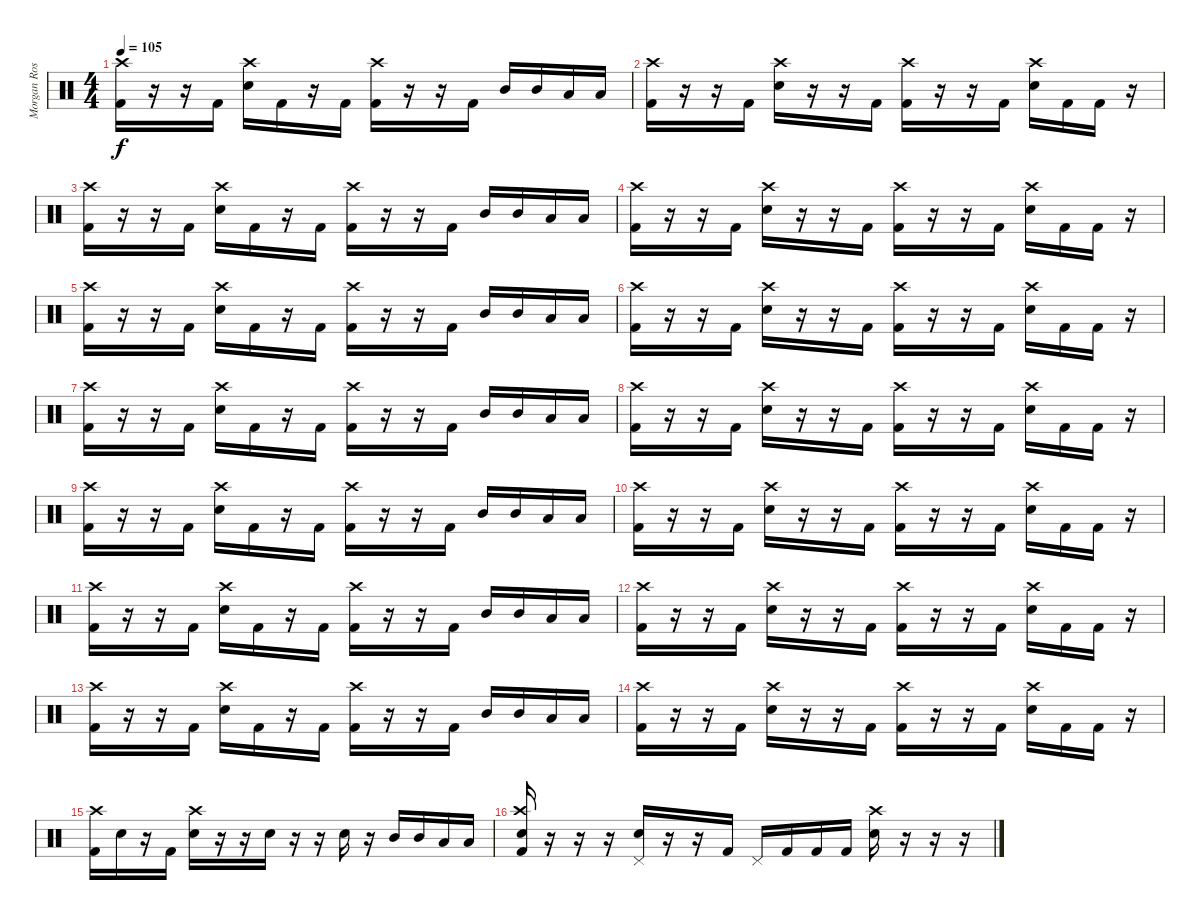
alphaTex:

\track ("Morgan Rose - Drums" "Morgan Ros") {instrument percussion}
\staff {score}
\articulation defaults
\ts (4 4)
\tempo 105
\clef neutral
\ks c
("Kick (hit) 2" "Crash high (hit)").16{dy f} r.16 r.16 "Kick (hit) 2".16 ("Snare (hit) 2" "Crash high (hit)").16 "Kick (hit) 2".16 r.16 "Kick (hit) 2".16 ("Kick (hit) 2" "Crash high (hit)").16 r.16 r.16 "Kick (hit) 2".16 "Mid Tom (hit)".16 "Mid Tom (hit)".16 "Low Tom (hit)".16 "Low Tom (hit)".16 |
("Kick (hit) 2" "Crash high (hit)").16 r.16 r.16 "Kick (hit) 2".16 ("Snare (hit) 2" "Crash high (hit)").16 r.16 r.16 "Kick (hit) 2".16 ("Kick (hit) 2" "Crash high (hit)").16 r.16 r.16 "Kick (hit) 2".16 ("Snare (hit) 2" "Crash high (hit)").16 "Kick (hit) 2".16 "Kick (hit) 2".16 r.16 |
("Kick (hit) 2" "Crash high (hit)").16 r.16 r.16 "Kick (hit) 2".16 ("Snare (hit) 2" "Crash high (hit)").16 "Kick (hit) 2".16 r.16 "Kick (hit) 2".16 ("Kick (hit) 2" "Crash high (hit)").16 r.16 r.16 "Kick (hit) 2".16 "Mid Tom (hit)".16 "Mid Tom (hit)".16 "Low Tom (hit)".16 "Low Tom (hit)".16 |
("Kick (hit) 2" "Crash high (hit)").16 r.16 r.16 "Kick (hit) 2".16 ("Snare (hit) 2" "Crash high (hit)").16 r.16 r.16 "Kick (hit) 2".16 ("Kick (hit) 2" "Crash high (hit)").16 r.16 r.16 "Kick (hit) 2".16 ("Snare (hit) 2" "Crash high (hit)").16 "Kick (hit) 2".16 "Kick (hit) 2".16 r.16 |
("Kick (hit) 2" "Crash high (hit)").16 r.16 r.16 "Kick (hit) 2".16 ("Snare (hit) 2" "Crash high (hit)").16 "Kick (hit) 2".16 r.16 "Kick (hit) 2".16 ("Kick (hit) 2" "Crash high (hit)").16 r.16 r.16 "Kick (hit) 2".16 "Mid Tom (hit)".16 "Mid Tom (hit)".16 "Low Tom (hit)".16 "Low Tom (hit)".16 |
("Kick (hit) 2" "Crash high (hit)").16 r.16 r.16 "Kick (hit) 2".16 ("Snare (hit) 2" "Crash high (hit)").16 r.16 r.16 "Kick (hit) 2".16 ("Kick (hit) 2" "Crash high (hit)").16 r.16 r.16 "Kick (hit) 2".16 ("Snare (hit) 2" "Crash high (hit)").16 "Kick (hit) 2".16 "Kick (hit) 2".16 r.16 |
("Kick (hit) 2" "Crash high (hit)").16 r.16 r.16 "Kick (hit) 2".16 ("Snare (hit) 2" "Crash high (hit)").16 "Kick (hit) 2".16 r.16 "Kick (hit) 2".16 ("Kick (hit) 2" "Crash high (hit)").16 r.16 r.16 "Kick (hit) 2".16 "Mid Tom (hit)".16 "Mid Tom (hit)".16 "Low Tom (hit)".16 "Low Tom (hit)".16 |
("Kick (hit) 2" "Crash high (hit)").16 r.16 r.16 "Kick (hit) 2".16 ("Snare (hit) 2" "Crash high (hit)").16 r.16 r.16 "Kick (hit) 2".16 ("Kick (hit) 2" "Crash high (hit)").16 r.16 r.16 "Kick (hit) 2".16 ("Snare (hit) 2" "Crash high (hit)").16 "Kick (hit) 2".16 "Kick (hit) 2".16 r.16 |
("Kick (hit) 2" "Crash high (hit)").16 r.16 r.16 "Kick (hit) 2".16 ("Snare (hit) 2" "Crash high (hit)").16 "Kick (hit) 2".16 r.16 "Kick (hit) 2".16 ("Kick (hit) 2" "Crash high (hit)").16 r.16 r.16 "Kick (hit) 2".16 "Mid Tom (hit)".16 "Mid Tom (hit)".16 "Low Tom (hit)".16 "Low Tom (hit)".16 |
("Kick (hit) 2" "Crash high (hit)").16 r.16 r.16 "Kick (hit) 2".16 ("Snare (hit) 2" "Crash high (hit)").16 r.16 r.16 "Kick (hit) 2".16 ("Kick (hit) 2" "Crash high (hit)").16 r.16 r.16 "Kick (hit) 2".16 ("Snare (hit) 2" "Crash high (hit)").16 "Kick (hit) 2".16 "Kick (hit) 2".16 r.16 |
("Kick (hit) 2" "Crash high (hit)").16 r.16 r.16 "Kick (hit) 2".16 ("Snare (hit) 2" "Crash high (hit)").16 "Kick (hit) 2".16 r.16 "Kick (hit) 2".16 ("Kick (hit) 2" "Crash high (hit)").16 r.16 r.16 "Kick (hit) 2".16 "Mid Tom (hit)".16 "Mid Tom (hit)".16 "Low Tom (hit)".16 "Low Tom (hit)".16 |
("Kick (hit) 2" "Crash high (hit)").16 r.16 r.16 "Kick (hit) 2".16 ("Snare (hit) 2" "Crash high (hit)").16 r.16 r.16 "Kick (hit) 2".16 ("Kick (hit) 2" "Crash high (hit)").16 r.16 r.16 "Kick (hit) 2".16 ("Snare (hit) 2" "Crash high (hit)").16 "Kick (hit) 2".16 "Kick (hit) 2".16 r.16 |
("Kick (hit) 2" "Crash high (hit)").16 r.16 r.16 "Kick (hit) 2".16 ("Snare (hit) 2" "Crash high (hit)").16 "Kick (hit) 2".16 r.16 "Kick (hit) 2".16 ("Kick (hit) 2" "Crash high (hit)").16 r.16 r.16 "Kick (hit) 2".16 "Mid Tom (hit)".16 "Mid Tom (hit)".16 "Low Tom (hit)".16 "Low Tom (hit)".16 |
("Kick (hit) 2" "Crash high (hit)").16 r.16 r.16 "Kick (hit) 2".16 ("Snare (hit) 2" "Crash high (hit)").16 r.16 r.16 "Kick (hit) 2".16 ("Kick (hit) 2" "Crash high (hit)").16 r.16 r.16 "Kick (hit) 2".16 ("Snare (hit) 2" "Crash high (hit)").16 "Kick (hit) 2".16 "Kick (hit) 2".16 r.16 |
("Kick (hit) 2" "Crash high (hit)").16 "Snare (hit) 2".16 r.16 "Kick (hit) 2".16 ("Snare (hit) 2" "Crash high (hit)").16 r.16 r.16 "Snare (hit) 2".16 r.16 r.16 "Snare (hit) 2".16 r.16 "Mid Tom (hit)".16 "Mid Tom (hit)".16 "Low Tom (hit)".16 "Low Tom (hit)".16 |
("Kick (hit) 2" "Electric Snare (hit)" "Crash high (hit)").16 r.16 r.16 r.16 ("Electric Snare (hit)" "Pedal Hi-Hat (hit)").16 r.16 r.16 "Kick (hit) 2".16 "Pedal Hi-Hat (hit)".16 "Kick (hit) 2".16 "Kick (hit) 2".16 "Kick (hit) 2".16 ("Electric Snare (hit)" "Crash high (hit)").16 r.16 r.16 r.16
